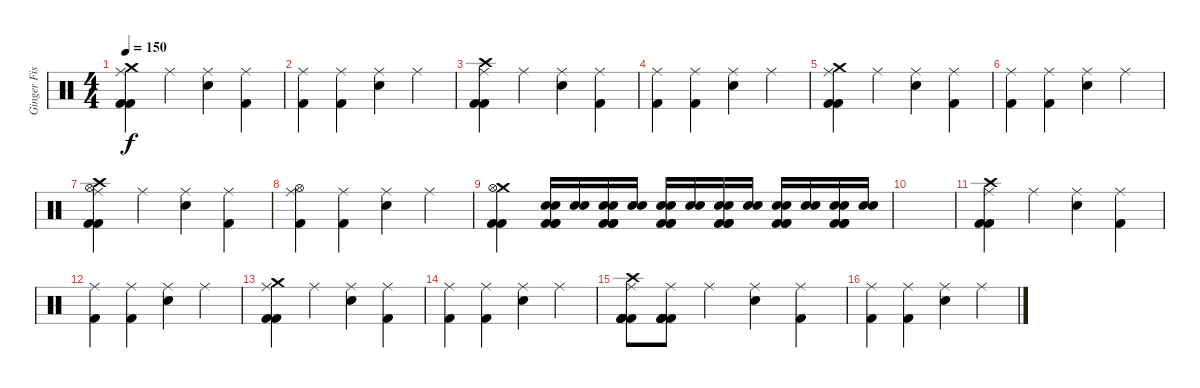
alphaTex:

\track ("Ginger Fish" "Ginger Fis") {instrument percussion}
\staff {score}
\articulation defaults
\ts (4 4)
\tempo 150
\clef neutral
\ks c
("Crash medium (hit)" "Ride (middle)" "Kick (hit) 2" "Kick (hit) 2").4{dy f} "Ride (middle)".4 ("Ride (middle)" "Electric Snare (hit)").4 ("Ride (middle)" "Kick (hit) 2").4 |
("Ride (middle)" "Kick (hit) 2").4 ("Ride (middle)" "Kick (hit) 2").4 ("Ride (middle)" "Electric Snare (hit)").4 "Ride (middle)".4 |
("Crash high (hit)" "Ride (middle)" "Kick (hit) 2" "Kick (hit) 2").4 "Ride (middle)".4 ("Ride (middle)" "Electric Snare (hit)").4 ("Ride (middle)" "Kick (hit) 2").4 |
("Ride (middle)" "Kick (hit) 2").4 ("Ride (middle)" "Kick (hit) 2").4 ("Ride (middle)" "Electric Snare (hit)").4 "Ride (middle)".4 |
("Crash medium (hit)" "Ride (middle)" "Kick (hit) 2" "Kick (hit) 2").4 "Ride (middle)".4 ("Ride (middle)" "Electric Snare (hit)").4 ("Ride (middle)" "Kick (hit) 2").4 |
("Ride (middle)" "Kick (hit) 2").4 ("Ride (middle)" "Kick (hit) 2").4 ("Ride (middle)" "Electric Snare (hit)").4 "Ride (middle)".4 |
("Crash high (hit)" "Ride (middle)" "Hi-Hat (open)" "Kick (hit) 2" "Kick (hit) 2").4 "Ride (middle)".4 ("Ride (middle)" "Electric Snare (hit)").4 ("Ride (middle)" "Kick (hit) 2").4 |
("Hi-Hat (open)" "Ride (middle)" "Kick (hit) 2").4 ("Ride (middle)" "Kick (hit) 2").4 ("Ride (middle)" "Electric Snare (hit)").4 "Ride (middle)".4 |
("Crash medium (hit)" "Hi-Hat (open)" "Kick (hit) 2" "Kick (hit) 2").4 ("Electric Snare (hit)" "Electric Snare (hit)" "Kick (hit) 2" "Kick (hit) 2" "Kick (hit) 2").16 ("Electric Snare (hit)" "Electric Snare (hit)").16 ("Electric Snare (hit)" "Electric Snare (hit)" "Kick (hit) 2" "Kick (hit) 2" "Kick (hit) 2").16 ("Electric Snare (hit)" "Electric Snare (hit)").16 ("Electric Snare (hit)" "Electric Snare (hit)" "Kick (hit) 2" "Kick (hit) 2" "Kick (hit) 2").16 ("Electric Snare (hit)" "Electric Snare (hit)").16 ("Electric Snare (hit)" "Electric Snare (hit)" "Kick (hit) 2" "Kick (hit) 2" "Kick (hit) 2").16 ("Electric Snare (hit)" "Electric Snare (hit)").16 ("Electric Snare (hit)" "Electric Snare (hit)" "Kick (hit) 2" "Kick (hit) 2" "Kick (hit) 2").16 ("Electric Snare (hit)" "Electric Snare (hit)").16 ("Electric Snare (hit)" "Electric Snare (hit)" "Kick (hit) 2" "Kick (hit) 2" "Kick (hit) 2").16 ("Electric Snare (hit)" "Electric Snare (hit)").16 |
|
("Crash high (hit)" "Ride (middle)" "Kick (hit) 2" "Kick (hit) 2").4 "Ride (middle)".4 ("Ride (middle)" "Electric Snare (hit)").4 ("Ride (middle)" "Kick (hit) 2").4 |
("Ride (middle)" "Kick (hit) 2").4 ("Ride (middle)" "Kick (hit) 2").4 ("Ride (middle)" "Electric Snare (hit)").4 "Ride (middle)".4 |
("Crash medium (hit)" "Ride (middle)" "Kick (hit) 2" "Kick (hit) 2").4 "Ride (middle)".4 ("Ride (middle)" "Electric Snare (hit)").4 ("Ride (middle)" "Kick (hit) 2").4 |
("Ride (middle)" "Kick (hit) 2").4 ("Ride (middle)" "Kick (hit) 2").4 ("Ride (middle)" "Electric Snare (hit)").4 "Ride (middle)".4 |
("Crash high (hit)" "Ride (middle)" "Kick (hit) 2" "Kick (hit) 2" "Kick (hit) 2" "Kick (hit) 2").8 ("Ride (middle)" "Kick (hit) 2" "Kick (hit) 2" "Kick (hit) 2" "Kick (hit) 2").8 "Ride (middle)".4 ("Ride (middle)" "Electric Snare (hit)").4 ("Ride (middle)" "Kick (hit) 2").4 |
("Ride (middle)" "Kick (hit) 2").4 ("Ride (middle)" "Kick (hit) 2").4 ("Ride (middle)" "Electric Snare (hit)").4 "Ride (middle)".4
